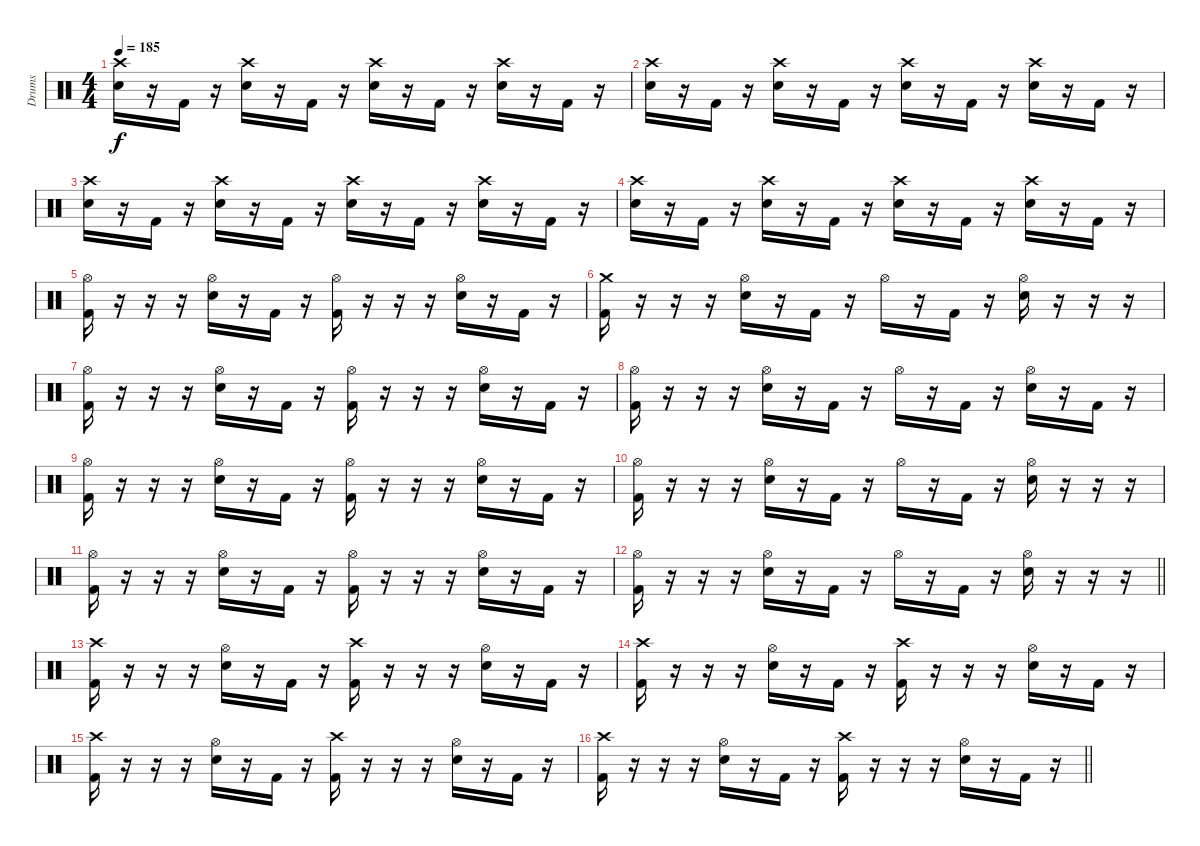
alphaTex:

\track ("Drums" "Drums") {instrument percussion}
\staff {score}
\articulation defaults
\ts (4 4)
\tempo 185
\clef neutral
\ks c
("Crash high (hit)" "Electric Snare (hit)").16{dy f} r.16 "Kick (hit) 2".16 r.16 ("Crash high (hit)" "Electric Snare (hit)").16 r.16 "Kick (hit) 2".16 r.16 ("Crash high (hit)" "Electric Snare (hit)").16 r.16 "Kick (hit) 2".16 r.16 ("Crash high (hit)" "Electric Snare (hit)").16 r.16 "Kick (hit) 2".16 r.16 |
("Crash high (hit)" "Electric Snare (hit)").16 r.16 "Kick (hit) 2".16 r.16 ("Crash high (hit)" "Electric Snare (hit)").16 r.16 "Kick (hit) 2".16 r.16 ("Crash high (hit)" "Electric Snare (hit)").16 r.16 "Kick (hit) 2".16 r.16 ("Crash high (hit)" "Electric Snare (hit)").16 r.16 "Kick (hit) 2".16 r.16 |
("Crash high (hit)" "Electric Snare (hit)").16 r.16 "Kick (hit) 2".16 r.16 ("Crash high (hit)" "Electric Snare (hit)").16 r.16 "Kick (hit) 2".16 r.16 ("Crash high (hit)" "Electric Snare (hit)").16 r.16 "Kick (hit) 2".16 r.16 ("Crash high (hit)" "Electric Snare (hit)").16 r.16 "Kick (hit) 2".16 r.16 |
("Crash high (hit)" "Electric Snare (hit)").16 r.16 "Kick (hit) 2".16 r.16 ("Crash high (hit)" "Electric Snare (hit)").16 r.16 "Kick (hit) 2".16 r.16 ("Crash high (hit)" "Electric Snare (hit)").16 r.16 "Kick (hit) 2".16 r.16 ("Crash high (hit)" "Electric Snare (hit)").16 r.16 "Kick (hit) 2".16 r.16 |
("Hi-Hat (open)" "Kick (hit) 2").16 r.16 r.16 r.16 ("Hi-Hat (open)" "Electric Snare (hit)").16 r.16 "Kick (hit) 2".16 r.16 ("Hi-Hat (open)" "Kick (hit) 2").16 r.16 r.16 r.16 ("Hi-Hat (open)" "Electric Snare (hit)").16 r.16 "Kick (hit) 2".16 r.16 |
("Crash medium (hit)" "Kick (hit) 2").16 r.16 r.16 r.16 ("Hi-Hat (open)" "Electric Snare (hit)").16 r.16 "Kick (hit) 2".16 r.16 "Hi-Hat (open)".16 r.16 "Kick (hit) 2".16 r.16 ("Hi-Hat (open)" "Electric Snare (hit)").16 r.16 r.16 r.16 |
("Hi-Hat (open)" "Kick (hit) 2").16 r.16 r.16 r.16 ("Hi-Hat (open)" "Electric Snare (hit)").16 r.16 "Kick (hit) 2".16 r.16 ("Hi-Hat (open)" "Kick (hit) 2").16 r.16 r.16 r.16 ("Hi-Hat (open)" "Electric Snare (hit)").16 r.16 "Kick (hit) 2".16 r.16 |
("Hi-Hat (open)" "Kick (hit) 2").16 r.16 r.16 r.16 ("Hi-Hat (open)" "Electric Snare (hit)").16 r.16 "Kick (hit) 2".16 r.16 "Hi-Hat (open)".16 r.16 "Kick (hit) 2".16 r.16 ("Hi-Hat (open)" "Electric Snare (hit)").16 r.16 "Kick (hit) 2".16 r.16 |
("Hi-Hat (open)" "Kick (hit) 2").16 r.16 r.16 r.16 ("Hi-Hat (open)" "Electric Snare (hit)").16 r.16 "Kick (hit) 2".16 r.16 ("Hi-Hat (open)" "Kick (hit) 2").16 r.16 r.16 r.16 ("Hi-Hat (open)" "Electric Snare (hit)").16 r.16 "Kick (hit) 2".16 r.16 |
("Hi-Hat (open)" "Kick (hit) 2").16 r.16 r.16 r.16 ("Hi-Hat (open)" "Electric Snare (hit)").16 r.16 "Kick (hit) 2".16 r.16 "Hi-Hat (open)".16 r.16 "Kick (hit) 2".16 r.16 ("Hi-Hat (open)" "Electric Snare (hit)").16 r.16 r.16 r.16 |
("Hi-Hat (open)" "Kick (hit) 2").16 r.16 r.16 r.16 ("Hi-Hat (open)" "Electric Snare (hit)").16 r.16 "Kick (hit) 2".16 r.16 ("Hi-Hat (open)" "Kick (hit) 2").16 r.16 r.16 r.16 ("Hi-Hat (open)" "Electric Snare (hit)").16 r.16 "Kick (hit) 2".16 r.16 |
\barLineRight lightlight
("Hi-Hat (open)" "Kick (hit) 2").16 r.16 r.16 r.16 ("Hi-Hat (open)" "Electric Snare (hit)").16 r.16 "Kick (hit) 2".16 r.16 "Hi-Hat (open)".16 r.16 "Kick (hit) 2".16 r.16 ("Hi-Hat (open)" "Electric Snare (hit)").16 r.16 r.16 r.16 |
("Crash high (hit)" "Kick (hit) 2").16 r.16 r.16 r.16 ("Hi-Hat (open)" "Electric Snare (hit)").16 r.16 "Kick (hit) 2".16 r.16 ("Crash high (hit)" "Kick (hit) 2").16 r.16 r.16 r.16 ("Hi-Hat (open)" "Electric Snare (hit)").16 r.16 "Kick (hit) 2".16 r.16 |
("Crash high (hit)" "Kick (hit) 2").16 r.16 r.16 r.16 ("Hi-Hat (open)" "Electric Snare (hit)").16 r.16 "Kick (hit) 2".16 r.16 ("Crash high (hit)" "Kick (hit) 2").16 r.16 r.16 r.16 ("Hi-Hat (open)" "Electric Snare (hit)").16 r.16 "Kick (hit) 2".16 r.16 |
("Crash high (hit)" "Kick (hit) 2").16 r.16 r.16 r.16 ("Hi-Hat (open)" "Electric Snare (hit)").16 r.16 "Kick (hit) 2".16 r.16 ("Crash high (hit)" "Kick (hit) 2").16 r.16 r.16 r.16 ("Hi-Hat (open)" "Electric Snare (hit)").16 r.16 "Kick (hit) 2".16 r.16 |
\barLineRight lightlight
("Crash high (hit)" "Kick (hit) 2").16 r.16 r.16 r.16 ("Hi-Hat (open)" "Electric Snare (hit)").16 r.16 "Kick (hit) 2".16 r.16 ("Crash high (hit)" "Kick (hit) 2").16 r.16 r.16 r.16 ("Hi-Hat (open)" "Electric Snare (hit)").16 r.16 "Kick (hit) 2".16 r.16
